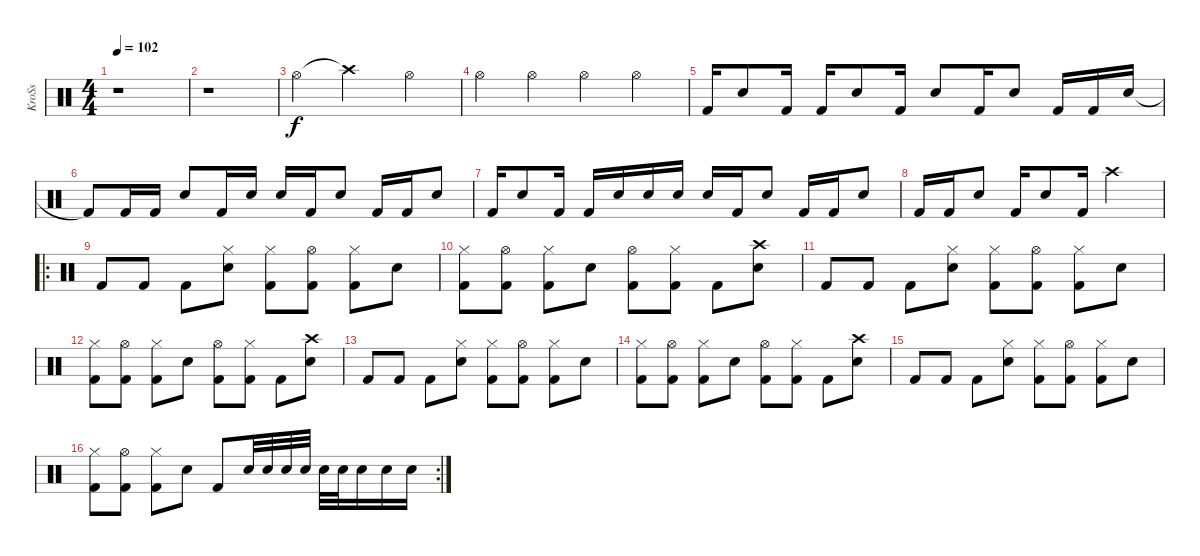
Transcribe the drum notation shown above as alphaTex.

\track ("KroSs" "KroSs") {instrument percussion}
\staff {score}
\articulation defaults
\ts (4 4)
\tempo 102
\clef neutral
\ks c
r.1{dy f} |
r.1 |
"Hi-Hat (open)".4 "Crash high (hit)"{t}.2 "Hi-Hat (open)".4 |
"Hi-Hat (open)".4 "Hi-Hat (open)".4 "Hi-Hat (open)".4 "Hi-Hat (open)".4 |
"Kick (hit) 2".16 "Snare (hit) 2".8 "Kick (hit) 2".16 "Kick (hit) 2".16 "Snare (hit) 2".8 "Kick (hit) 2".16 "Snare (hit) 2".8 "Kick (hit) 2".16 "Snare (hit) 2".8 "Kick (hit) 2".16 "Kick (hit) 2".16 "Snare (hit) 2".16 |
"Kick (hit) 2"{t}.8 "Kick (hit) 2".16 "Kick (hit) 2".16 "Snare (hit) 2".8 "Kick (hit) 2".16 "Snare (hit) 2".16 "Snare (hit) 2".16 "Kick (hit) 2".16 "Snare (hit) 2".8 "Kick (hit) 2".16 "Kick (hit) 2".16 "Snare (hit) 2".8 |
"Kick (hit) 2".16 "Snare (hit) 2".8 "Kick (hit) 2".16 "Kick (hit) 2".16 "Snare (hit) 2".16 "Snare (hit) 2".16 "Snare (hit) 2".16 "Snare (hit) 2".16 "Kick (hit) 2".16 "Snare (hit) 2".8 "Kick (hit) 2".16 "Kick (hit) 2".16 "Snare (hit) 2".8 |
"Kick (hit) 2".16 "Kick (hit) 2".16 "Snare (hit) 2".8 "Kick (hit) 2".16 "Snare (hit) 2".8 "Kick (hit) 2".16 "Crash high (hit)".2 |
\ro "Kick (hit) 2".8 "Kick (hit) 2".8 "Kick (hit) 2".8
("Hi-Hat (closed)" "Snare (hit) 2").8 ("Hi-Hat (closed)" "Kick (hit) 2").8 ("Hi-Hat (open)" "Kick (hit) 2").8 ("Hi-Hat (closed)" "Kick (hit) 2").8 "Snare (hit) 2".8 |
("Hi-Hat (closed)" "Kick (hit) 2").8 ("Hi-Hat (open)" "Kick (hit) 2").8 ("Hi-Hat (closed)" "Kick (hit) 2").8 "Snare (hit) 2".8 ("Hi-Hat (open)" "Kick (hit) 2").8 ("Hi-Hat (closed)" "Kick (hit) 2").8 "Kick (hit) 2".8 ("Crash high (hit)" "Snare (hit) 2").8 |
"Kick (hit) 2".8 "Kick (hit) 2".8 "Kick (hit) 2".8 ("Hi-Hat (closed)" "Snare (hit) 2").8 ("Hi-Hat (closed)" "Kick (hit) 2").8 ("Hi-Hat (open)" "Kick (hit) 2").8 ("Hi-Hat (closed)" "Kick (hit) 2").8 "Snare (hit) 2".8 |
("Hi-Hat (closed)" "Kick (hit) 2").8 ("Hi-Hat (open)" "Kick (hit) 2").8 ("Hi-Hat (closed)" "Kick (hit) 2").8 "Snare (hit) 2".8 ("Hi-Hat (open)" "Kick (hit) 2").8 ("Hi-Hat (closed)" "Kick (hit) 2").8 "Kick (hit) 2".8 ("Crash high (hit)" "Snare (hit) 2").8 |
"Kick (hit) 2".8 "Kick (hit) 2".8 "Kick (hit) 2".8 ("Hi-Hat (closed)" "Snare (hit) 2").8 ("Hi-Hat (closed)" "Kick (hit) 2").8 ("Hi-Hat (open)" "Kick (hit) 2").8 ("Hi-Hat (closed)" "Kick (hit) 2").8 "Snare (hit) 2".8 |
("Hi-Hat (closed)" "Kick (hit) 2").8 ("Hi-Hat (open)" "Kick (hit) 2").8 ("Hi-Hat (closed)" "Kick (hit) 2").8 "Snare (hit) 2".8 ("Hi-Hat (open)" "Kick (hit) 2").8 ("Hi-Hat (closed)" "Kick (hit) 2").8 "Kick (hit) 2".8 ("Crash high (hit)" "Snare (hit) 2").8 |
"Kick (hit) 2".8 "Kick (hit) 2".8 "Kick (hit) 2".8 ("Hi-Hat (closed)" "Snare (hit) 2").8 ("Hi-Hat (closed)" "Kick (hit) 2").8 ("Hi-Hat (open)" "Kick (hit) 2").8 ("Hi-Hat (closed)" "Kick (hit) 2").8 "Snare (hit) 2".8 |
\rc 2
("Hi-Hat (closed)" "Kick (hit) 2").8 ("Hi-Hat (open)" "Kick (hit) 2").8 ("Hi-Hat (closed)" "Kick (hit) 2").8 "Snare (hit) 2".8 "Kick (hit) 2".8 "Snare (hit) 2".32 "Snare (hit) 2".32 "Snare (hit) 2".32 "Snare (hit) 2".32 "Snare (hit) 2".32 "Snare (hit) 2".32 "Snare (hit) 2".16 "Snare (hit) 2".16 "Snare (hit) 2".16
